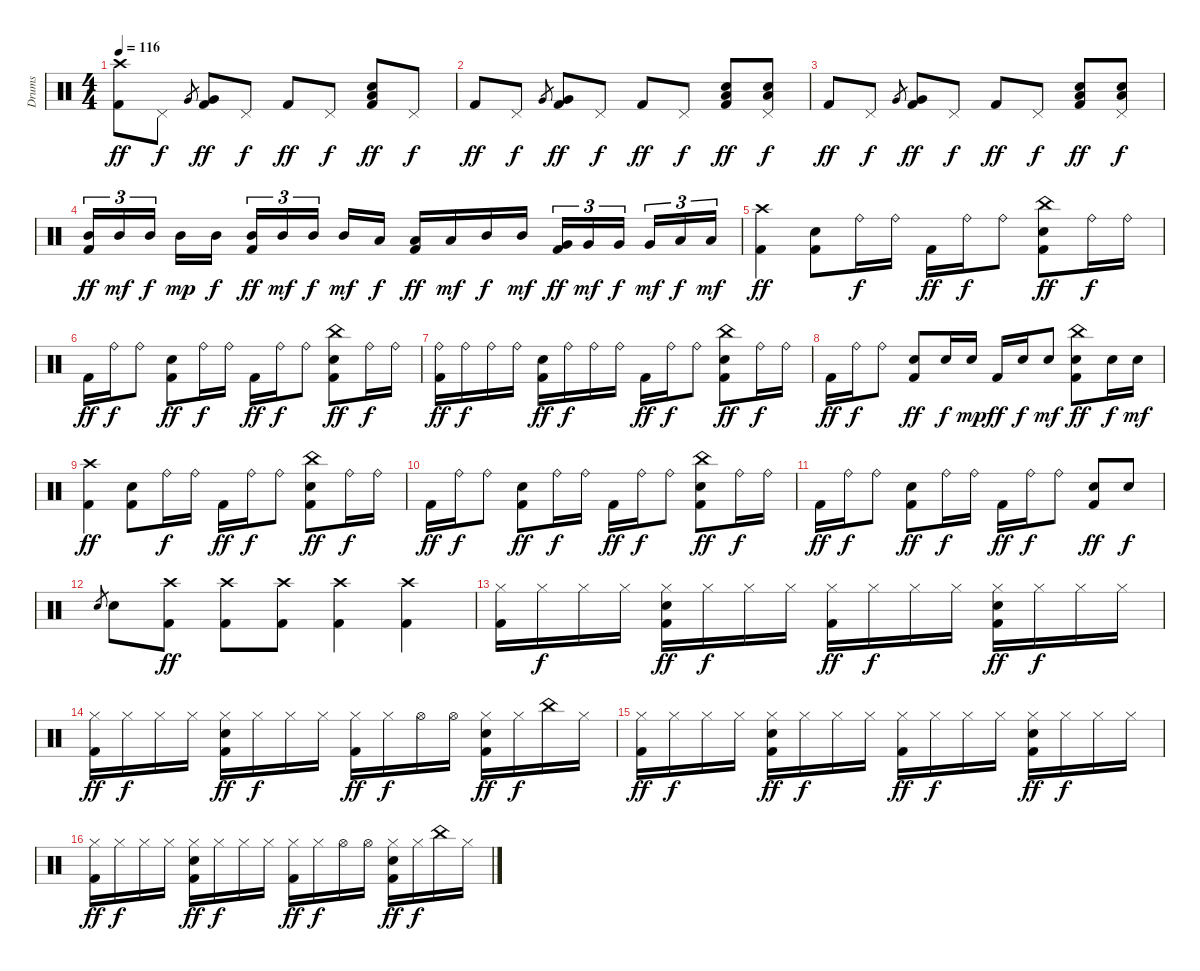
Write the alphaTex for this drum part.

\track ("Drums" "Drums") {instrument percussion}
\staff {score}
\articulation defaults
\ts (4 4)
\tempo 116
\clef neutral
\ks c
("Crash high (hit)" "Kick (hit) 2").8{dy ff} "Pedal Hi-Hat (hit)".8{dy f} "Very Low Tom (hit)".8{gr} ("Very Low Tom (hit)" "Kick (hit) 2").8{dy ff} "Pedal Hi-Hat (hit)".8{dy f} "Kick (hit) 2".8{dy ff} "Pedal Hi-Hat (hit)".8{dy f} ("Snare (hit) 2" "Low Floor Tom (hit)" "Kick (hit) 2").8{dy ff} "Pedal Hi-Hat (hit)".8{dy f} |
"Kick (hit) 2".8{dy ff} "Pedal Hi-Hat (hit)".8{dy f} "Very Low Tom (hit)".8{gr} ("Very Low Tom (hit)" "Kick (hit) 2").8{dy ff} "Pedal Hi-Hat (hit)".8{dy f} "Kick (hit) 2".8{dy ff} "Pedal Hi-Hat (hit)".8{dy f} ("Snare (hit) 2" "Low Floor Tom (hit)" "Kick (hit) 2").8{dy ff} ("Snare (hit) 2" "Low Floor Tom (hit)" "Pedal Hi-Hat (hit)").8{dy f} |
"Kick (hit) 2".8{dy ff} "Pedal Hi-Hat (hit)".8{dy f} "Very Low Tom (hit)".8{gr} ("Very Low Tom (hit)" "Kick (hit) 2").8{dy ff} "Pedal Hi-Hat (hit)".8{dy f} "Kick (hit) 2".8{dy ff} "Pedal Hi-Hat (hit)".8{dy f} ("Snare (hit) 2" "Low Floor Tom (hit)" "Kick (hit) 2").8{dy ff} ("Snare (hit) 2" "Low Floor Tom (hit)" "Pedal Hi-Hat (hit)").8{dy f} |
("Mid Tom (hit)" "Kick (hit) 2").16{tu (3 2) dy ff} "Mid Tom (hit)".16{tu (3 2) dy mf} "Mid Tom (hit)".16{tu (3 2) dy f} "Mid Tom (hit)".16{dy mp} "Mid Tom (hit)".16{dy f} ("Mid Tom (hit)" "Kick (hit) 2").16{tu (3 2) dy ff} "Mid Tom (hit)".16{tu (3 2) dy mf} "Mid Tom (hit)".16{tu (3 2) dy f} "Mid Tom (hit)".16{dy mf} "Low Tom (hit)".16{dy f} ("Low Tom (hit)" "Kick (hit) 2").16{dy ff} "Low Tom (hit)".16{dy mf} "Mid Tom (hit)".16{dy f} "Mid Tom (hit)".16{dy mf} ("Very Low Tom (hit)" "Kick (hit) 2").16{tu (3 2) dy ff} "Very Low Tom (hit)".16{tu (3 2) dy mf} "Very Low Tom (hit)".16{tu (3 2) dy f} "Very Low Tom (hit)".16{tu (3 2) dy mf} "Low Floor Tom (hit)".16{tu (3 2) dy f} "Low Floor Tom (hit)".16{tu (3 2) dy mf} |
("Crash high (hit)" "Kick (hit) 2").4{dy ff} ("Snare (hit) 2" "Kick (hit) 2").8 "Ride (bell)".16{dy f} "Ride (bell)".16 "Kick (hit) 2".16{dy ff} "Ride (bell)".16{dy f} "Ride (bell)".8 ("China (hit)" "Snare (hit) 2" "Kick (hit) 2").8{dy ff} "Ride (bell)".16{dy f} "Ride (bell)".16 |
"Kick (hit) 2".16{dy ff} "Ride (bell)".16{dy f} "Ride (bell)".8 ("Snare (hit) 2" "Kick (hit) 2").8{dy ff} "Ride (bell)".16{dy f} "Ride (bell)".16 "Kick (hit) 2".16{dy ff} "Ride (bell)".16{dy f} "Ride (bell)".8 ("China (hit)" "Snare (hit) 2" "Kick (hit) 2").8{dy ff} "Ride (bell)".16{dy f} "Ride (bell)".16 |
("Ride (bell)" "Kick (hit) 2").16{dy ff} "Ride (bell)".16{dy f} "Ride (bell)".16 "Ride (bell)".16 ("Snare (hit) 2" "Kick (hit) 2").16{dy ff} "Ride (bell)".16{dy f} "Ride (bell)".16 "Ride (bell)".16 "Kick (hit) 2".16{dy ff} "Ride (bell)".16{dy f} "Ride (bell)".8 ("China (hit)" "Snare (hit) 2" "Kick (hit) 2").8{dy ff} "Ride (bell)".16{dy f} "Ride (bell)".16 |
"Kick (hit) 2".16{dy ff} "Ride (bell)".16{dy f} "Ride (bell)".8 ("Snare (hit) 2" "Kick (hit) 2").8{dy ff} "Snare (hit) 2".16{dy f} "Snare (hit) 2".16{dy mp} "Kick (hit) 2".16{dy ff} "Snare (hit) 2".16{dy f} "Snare (hit) 2".8{dy mf} ("China (hit)" "Snare (hit) 2" "Kick (hit) 2").8{dy ff} "Snare (hit) 2".16{dy f} "Snare (hit) 2".16{dy mf} |
("Crash high (hit)" "Kick (hit) 2").4{dy ff} ("Snare (hit) 2" "Kick (hit) 2").8 "Ride (bell)".16{dy f} "Ride (bell)".16 "Kick (hit) 2".16{dy ff} "Ride (bell)".16{dy f} "Ride (bell)".8 ("China (hit)" "Snare (hit) 2" "Kick (hit) 2").8{dy ff} "Ride (bell)".16{dy f} "Ride (bell)".16 |
"Kick (hit) 2".16{dy ff} "Ride (bell)".16{dy f} "Ride (bell)".8 ("Snare (hit) 2" "Kick (hit) 2").8{dy ff} "Ride (bell)".16{dy f} "Ride (bell)".16 "Kick (hit) 2".16{dy ff} "Ride (bell)".16{dy f} "Ride (bell)".8 ("China (hit)" "Snare (hit) 2" "Kick (hit) 2").8{dy ff} "Ride (bell)".16{dy f} "Ride (bell)".16 |
"Kick (hit) 2".16{dy ff} "Ride (bell)".16{dy f} "Ride (bell)".8 ("Snare (hit) 2" "Kick (hit) 2").8{dy ff} "Ride (bell)".16{dy f} "Ride (bell)".16 "Kick (hit) 2".16{dy ff} "Ride (bell)".16{dy f} "Ride (bell)".8 ("Snare (hit) 2" "Kick (hit) 2").8{dy ff} "Snare (hit) 2".8{dy f} |
"Snare (hit) 2".8{gr} "Snare (hit) 2".8 ("Crash high (hit)" "Kick (hit) 2").8{dy ff} ("Crash high (hit)" "Kick (hit) 2").8 ("Crash high (hit)" "Kick (hit) 2").8 ("Crash high (hit)" "Kick (hit) 2").4 ("Crash high (hit)" "Kick (hit) 2").4 |
("Hi-Hat (closed)" "Kick (hit) 2").16 "Hi-Hat (closed)".16{dy f} "Hi-Hat (closed)".16 "Hi-Hat (closed)".16 ("Hi-Hat (closed)" "Snare (hit) 2" "Kick (hit) 2").16{dy ff} "Hi-Hat (closed)".16{dy f} "Hi-Hat (closed)".16 "Hi-Hat (closed)".16 ("Hi-Hat (closed)" "Kick (hit) 2").16{dy ff} "Hi-Hat (closed)".16{dy f} "Hi-Hat (closed)".16 "Hi-Hat (closed)".16 ("Hi-Hat (closed)" "Snare (hit) 2" "Kick (hit) 2").16{dy ff} "Hi-Hat (closed)".16{dy f} "Hi-Hat (closed)".16 "Hi-Hat (closed)".16 |
("Hi-Hat (closed)" "Kick (hit) 2").16{dy ff} "Hi-Hat (closed)".16{dy f} "Hi-Hat (closed)".16 "Hi-Hat (closed)".16 ("Hi-Hat (closed)" "Snare (hit) 2" "Kick (hit) 2").16{dy ff} "Hi-Hat (closed)".16{dy f} "Hi-Hat (closed)".16 "Hi-Hat (closed)".16 ("Hi-Hat (closed)" "Kick (hit) 2").16{dy ff} "Hi-Hat (closed)".16{dy f} "Hi-Hat (open)".16 "Hi-Hat (open)".16 ("Hi-Hat (closed)" "Snare (hit) 2" "Kick (hit) 2").16{dy ff} "Hi-Hat (closed)".16{dy f} "China (hit)".16 "Hi-Hat (closed)".16 |
("Hi-Hat (closed)" "Kick (hit) 2").16{dy ff} "Hi-Hat (closed)".16{dy f} "Hi-Hat (closed)".16 "Hi-Hat (closed)".16 ("Hi-Hat (closed)" "Snare (hit) 2" "Kick (hit) 2").16{dy ff} "Hi-Hat (closed)".16{dy f} "Hi-Hat (closed)".16 "Hi-Hat (closed)".16 ("Hi-Hat (closed)" "Kick (hit) 2").16{dy ff} "Hi-Hat (closed)".16{dy f} "Hi-Hat (closed)".16 "Hi-Hat (closed)".16 ("Hi-Hat (closed)" "Snare (hit) 2" "Kick (hit) 2").16{dy ff} "Hi-Hat (closed)".16{dy f} "Hi-Hat (closed)".16 "Hi-Hat (closed)".16 |
("Hi-Hat (closed)" "Kick (hit) 2").16{dy ff} "Hi-Hat (closed)".16{dy f} "Hi-Hat (closed)".16 "Hi-Hat (closed)".16 ("Hi-Hat (closed)" "Snare (hit) 2" "Kick (hit) 2").16{dy ff} "Hi-Hat (closed)".16{dy f} "Hi-Hat (closed)".16 "Hi-Hat (closed)".16 ("Hi-Hat (closed)" "Kick (hit) 2").16{dy ff} "Hi-Hat (closed)".16{dy f} "Hi-Hat (open)".16 "Hi-Hat (open)".16 ("Hi-Hat (closed)" "Snare (hit) 2" "Kick (hit) 2").16{dy ff} "Hi-Hat (closed)".16{dy f} "China (hit)".16 "Hi-Hat (closed)".16
